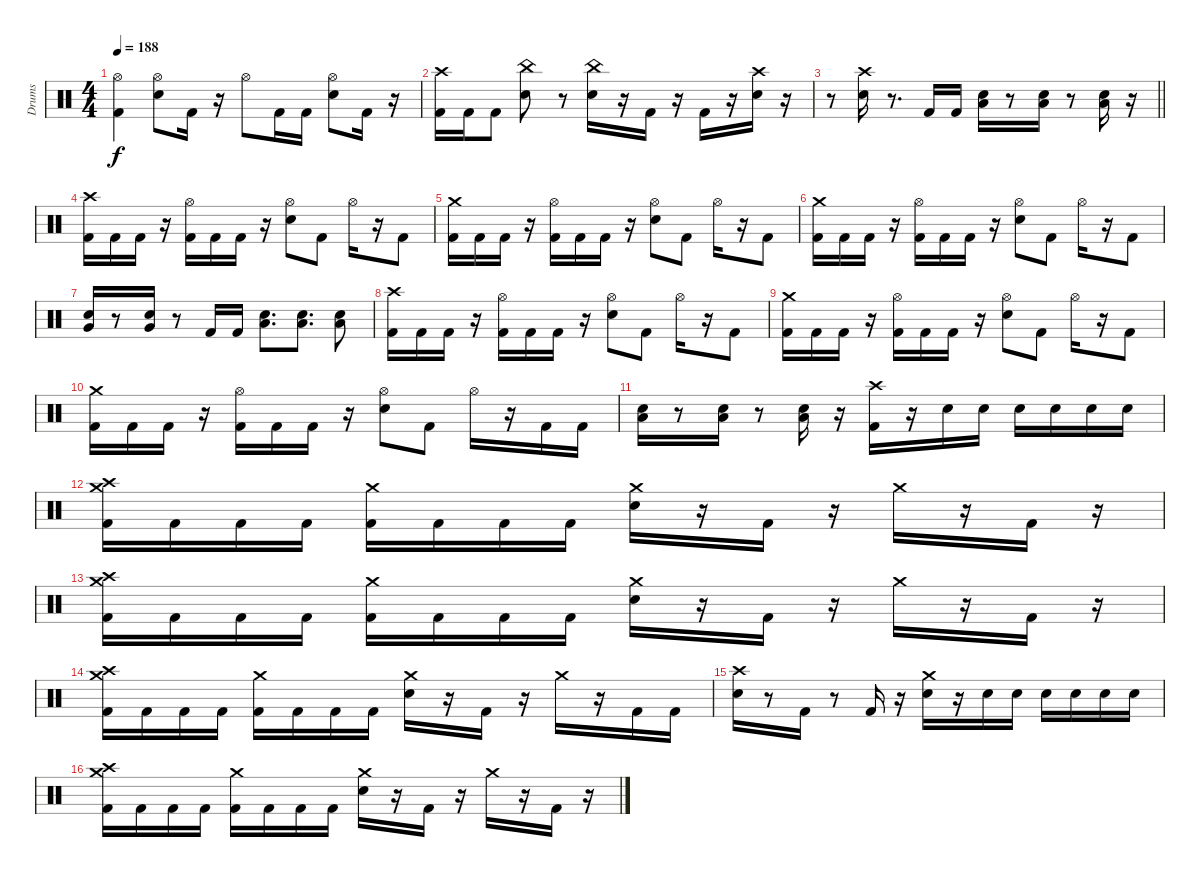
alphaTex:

\track ("Drums" "Drums") {instrument percussion}
\staff {score}
\articulation defaults
\ts (4 4)
\tempo 188
\clef neutral
\ks c
("Kick (hit) 2" "Hi-Hat (open)").4{dy f} ("Snare (hit) 2" "Hi-Hat (open)").8 "Kick (hit) 2".16 r.16 "Hi-Hat (open)".8 "Kick (hit) 2".16 "Kick (hit) 2".16 ("Snare (hit) 2" "Hi-Hat (open)").8 "Kick (hit) 2".16 r.16 |
("Kick (hit) 2" "Crash high (hit)").16 "Kick (hit) 2".16 "Kick (hit) 2".8 ("Snare (hit) 2" "China (hit)").8 r.8 ("Snare (hit) 2" "China (hit)").16 r.16 "Kick (hit) 2".16 r.16 "Kick (hit) 2".16 r.16 ("Snare (hit) 2" "Crash high (hit)").16 r.16 |
\barLineRight lightlight
r.8 ("Snare (hit) 2" "Crash high (hit)").16 r.8{d} "Kick (hit) 2".16 "Kick (hit) 2".16 ("Snare (hit) 2" "Low Floor Tom (hit)").16 r.8 ("Snare (hit) 2" "Low Floor Tom (hit)").16 r.8 ("Snare (hit) 2" "Low Floor Tom (hit)").16 r.16 |
\section ("" " ")
("Kick (hit) 2" "Crash high (hit)").16 "Kick (hit) 2".16 "Kick (hit) 2".16 r.16 ("Kick (hit) 2" "Hi-Hat (open)").16 "Kick (hit) 2".16 "Kick (hit) 2".16 r.16 ("Snare (hit) 2" "Hi-Hat (open)").8 "Kick (hit) 2".8 "Hi-Hat (open)".16 r.16 "Kick (hit) 2".8 |
("Kick (hit) 2" "Crash medium (hit)").16 "Kick (hit) 2".16 "Kick (hit) 2".16 r.16 ("Kick (hit) 2" "Hi-Hat (open)").16 "Kick (hit) 2".16 "Kick (hit) 2".16 r.16 ("Snare (hit) 2" "Hi-Hat (open)").8 "Kick (hit) 2".8 "Hi-Hat (open)".16 r.16 "Kick (hit) 2".8 |
("Kick (hit) 2" "Crash medium (hit)").16 "Kick (hit) 2".16 "Kick (hit) 2".16 r.16 ("Kick (hit) 2" "Hi-Hat (open)").16 "Kick (hit) 2".16 "Kick (hit) 2".16 r.16 ("Snare (hit) 2" "Hi-Hat (open)").8 "Kick (hit) 2".8 "Hi-Hat (open)".16 r.16 "Kick (hit) 2".8 |
("Snare (hit) 2" "Very Low Tom (hit)").16 r.8 ("Snare (hit) 2" "Very Low Tom (hit)").16 r.8 "Kick (hit) 2".16 "Kick (hit) 2".16 ("Snare (hit) 2" "Low Floor Tom (hit)").8{d} ("Snare (hit) 2" "Low Floor Tom (hit)").8{d} ("Snare (hit) 2" "Low Floor Tom (hit)").8 |
("Kick (hit) 2" "Crash high (hit)").16 "Kick (hit) 2".16 "Kick (hit) 2".16 r.16 ("Kick (hit) 2" "Hi-Hat (open)").16 "Kick (hit) 2".16 "Kick (hit) 2".16 r.16 ("Snare (hit) 2" "Hi-Hat (open)").8 "Kick (hit) 2".8 "Hi-Hat (open)".16 r.16 "Kick (hit) 2".8 |
("Kick (hit) 2" "Crash medium (hit)").16 "Kick (hit) 2".16 "Kick (hit) 2".16 r.16 ("Kick (hit) 2" "Hi-Hat (open)").16 "Kick (hit) 2".16 "Kick (hit) 2".16 r.16 ("Snare (hit) 2" "Hi-Hat (open)").8 "Kick (hit) 2".8 "Hi-Hat (open)".16 r.16 "Kick (hit) 2".8 |
("Kick (hit) 2" "Crash medium (hit)").16 "Kick (hit) 2".16 "Kick (hit) 2".16 r.16 ("Kick (hit) 2" "Hi-Hat (open)").16 "Kick (hit) 2".16 "Kick (hit) 2".16 r.16 ("Snare (hit) 2" "Hi-Hat (open)").8 "Kick (hit) 2".8 "Hi-Hat (open)".16 r.16 "Kick (hit) 2".16 "Kick (hit) 2".16 |
("Snare (hit) 2" "Low Floor Tom (hit)").16 r.8 ("Snare (hit) 2" "Low Floor Tom (hit)").16 r.8 ("Snare (hit) 2" "Low Floor Tom (hit)").16 r.16 ("Kick (hit) 2" "Crash high (hit)").16 r.16 "Snare (hit) 2".16 "Snare (hit) 2".16 "Snare (hit) 2".16 "Snare (hit) 2".16 "Snare (hit) 2".16 "Snare (hit) 2".16 |
("Kick (hit) 2" "Crash high (hit)" "Crash medium (hit)").16 "Kick (hit) 2".16 "Kick (hit) 2".16 "Kick (hit) 2".16 ("Kick (hit) 2" "Crash medium (hit)").16 "Kick (hit) 2".16 "Kick (hit) 2".16 "Kick (hit) 2".16 ("Snare (hit) 2" "Crash medium (hit)").16 r.16 "Kick (hit) 2".16 r.16 "Crash medium (hit)".16 r.16 "Kick (hit) 2".16 r.16 |
("Kick (hit) 2" "Crash high (hit)" "Crash medium (hit)").16 "Kick (hit) 2".16 "Kick (hit) 2".16 "Kick (hit) 2".16 ("Kick (hit) 2" "Crash medium (hit)").16 "Kick (hit) 2".16 "Kick (hit) 2".16 "Kick (hit) 2".16 ("Snare (hit) 2" "Crash medium (hit)").16 r.16 "Kick (hit) 2".16 r.16 "Crash medium (hit)".16 r.16 "Kick (hit) 2".16 r.16 |
("Kick (hit) 2" "Crash high (hit)" "Crash medium (hit)").16 "Kick (hit) 2".16 "Kick (hit) 2".16 "Kick (hit) 2".16 ("Kick (hit) 2" "Crash medium (hit)").16 "Kick (hit) 2".16 "Kick (hit) 2".16 "Kick (hit) 2".16 ("Snare (hit) 2" "Crash medium (hit)").16 r.16 "Kick (hit) 2".16 r.16 "Crash medium (hit)".16 r.16 "Kick (hit) 2".16 "Kick (hit) 2".16 |
("Snare (hit) 2" "Crash high (hit)").16 r.8 "Kick (hit) 2".16 r.8 "Kick (hit) 2".16 r.16 ("Snare (hit) 2" "Crash medium (hit)").16 r.16 "Snare (hit) 2".16 "Snare (hit) 2".16 "Snare (hit) 2".16 "Snare (hit) 2".16 "Snare (hit) 2".16 "Snare (hit) 2".16 |
("Kick (hit) 2" "Crash high (hit)" "Crash medium (hit)").16 "Kick (hit) 2".16 "Kick (hit) 2".16 "Kick (hit) 2".16 ("Kick (hit) 2" "Crash medium (hit)").16 "Kick (hit) 2".16 "Kick (hit) 2".16 "Kick (hit) 2".16 ("Snare (hit) 2" "Crash medium (hit)").16 r.16 "Kick (hit) 2".16 r.16 "Crash medium (hit)".16 r.16 "Kick (hit) 2".16 r.16
